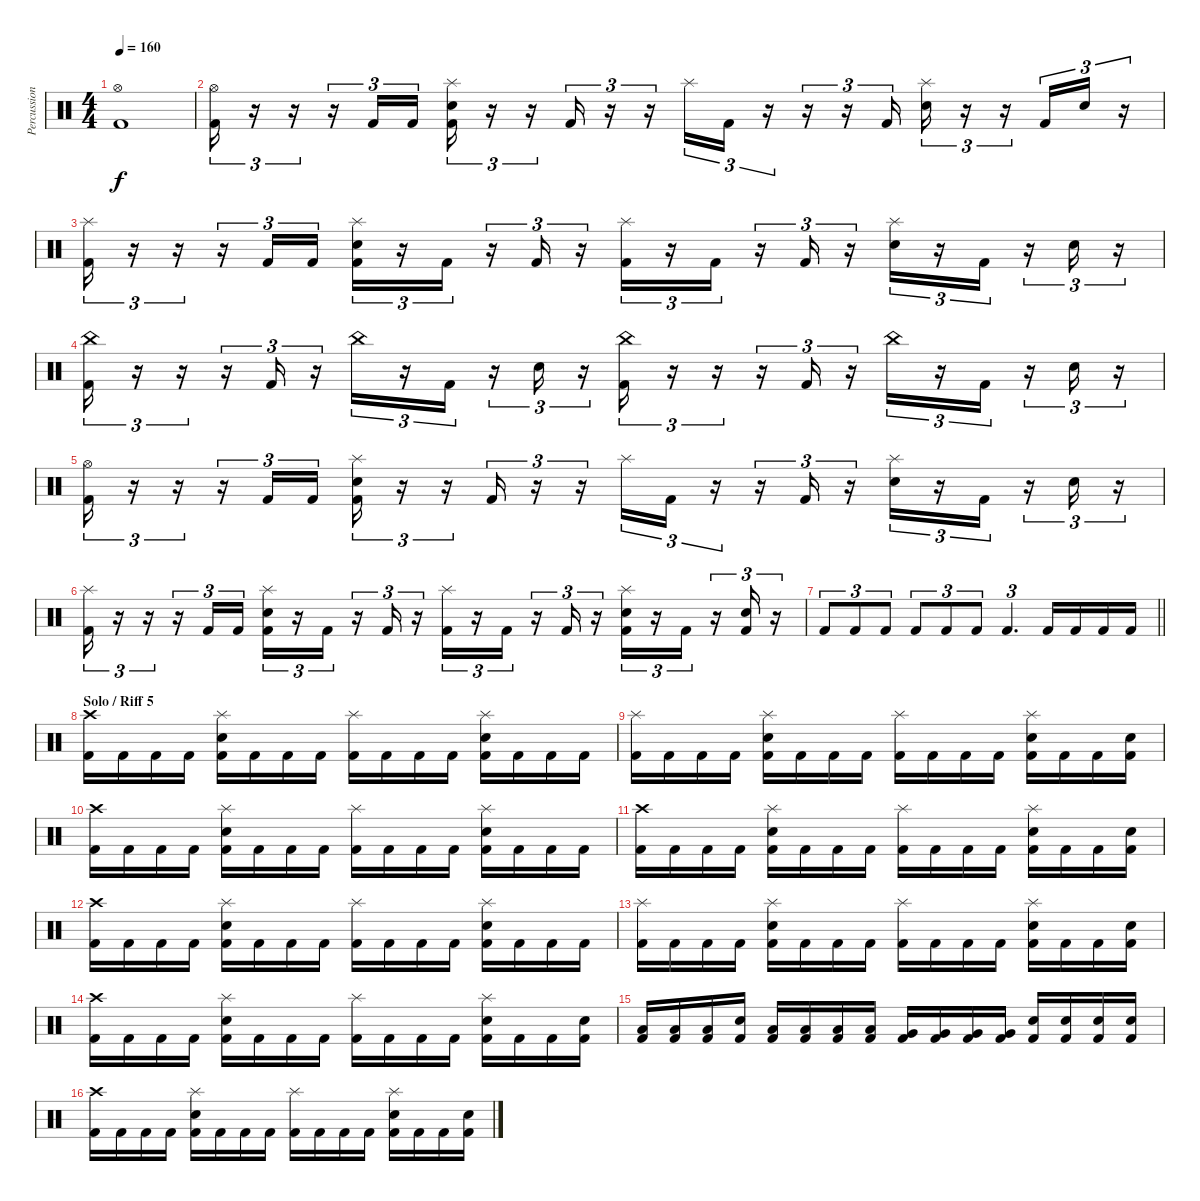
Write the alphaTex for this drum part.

\track ("Percussions" "Percussion") {instrument percussion bank 1}
\staff {score}
\articulation defaults
\ts (4 4)
\tempo 160
\clef neutral
\ks c
("Kick (hit) 2" "Hi-Hat (open)").1{dy f} |
("Kick (hit) 2" "Hi-Hat (open)").16{tu (3 2)} r.16{tu (3 2)} r.16{tu (3 2)} r.16{tu (3 2)} "Kick (hit) 2".16{tu (3 2)} "Kick (hit) 2".16{tu (3 2)} ("Kick (hit) 2" "Electric Snare (hit)" "Splash (hit)").16{tu (3 2)} r.16{tu (3 2)} r.16{tu (3 2)} "Kick (hit) 2".16{tu (3 2)} r.16{tu (3 2)} r.16{tu (3 2)} "Splash (hit)".16{tu (3 2)} "Kick (hit) 2".16{tu (3 2)} r.16{tu (3 2)} r.16{tu (3 2)} r.16{tu (3 2)} "Kick (hit) 2".16{tu (3 2)} ("Electric Snare (hit)" "Splash (hit)").16{tu (3 2)} r.16{tu (3 2)} r.16{tu (3 2)} "Kick (hit) 2".16{tu (3 2)} "Electric Snare (hit)".16{tu (3 2)} r.16{tu (3 2)} |
("Kick (hit) 2" "Splash (hit)").16{tu (3 2)} r.16{tu (3 2)} r.16{tu (3 2)} r.16{tu (3 2)} "Kick (hit) 2".16{tu (3 2)} "Kick (hit) 2".16{tu (3 2)} ("Kick (hit) 2" "Electric Snare (hit)" "Splash (hit)").16{tu (3 2)} r.16{tu (3 2)} "Kick (hit) 2".16{tu (3 2)} r.16{tu (3 2)} "Kick (hit) 2".16{tu (3 2)} r.16{tu (3 2)} ("Kick (hit) 2" "Splash (hit)").16{tu (3 2)} r.16{tu (3 2)} "Kick (hit) 2".16{tu (3 2)} r.16{tu (3 2)} "Kick (hit) 2".16{tu (3 2)} r.16{tu (3 2)} ("Electric Snare (hit)" "Splash (hit)").16{tu (3 2)} r.16{tu (3 2)} "Kick (hit) 2".16{tu (3 2)} r.16{tu (3 2)} "Electric Snare (hit)".16{tu (3 2)} r.16{tu (3 2)} |
("Kick (hit) 2" "China (hit)").16{tu (3 2)} r.16{tu (3 2)} r.16{tu (3 2)} r.16{tu (3 2)} "Kick (hit) 2".16{tu (3 2)} r.16{tu (3 2)} "China (hit)".16{tu (3 2)} r.16{tu (3 2)} "Kick (hit) 2".16{tu (3 2)} r.16{tu (3 2)} "Electric Snare (hit)".16{tu (3 2)} r.16{tu (3 2)} ("Kick (hit) 2" "China (hit)").16{tu (3 2)} r.16{tu (3 2)} r.16{tu (3 2)} r.16{tu (3 2)} "Kick (hit) 2".16{tu (3 2)} r.16{tu (3 2)} "China (hit)".16{tu (3 2)} r.16{tu (3 2)} "Kick (hit) 2".16{tu (3 2)} r.16{tu (3 2)} "Electric Snare (hit)".16{tu (3 2)} r.16{tu (3 2)} |
("Kick (hit) 2" "Hi-Hat (open)").16{tu (3 2)} r.16{tu (3 2)} r.16{tu (3 2)} r.16{tu (3 2)} "Kick (hit) 2".16{tu (3 2)} "Kick (hit) 2".16{tu (3 2)} ("Kick (hit) 2" "Electric Snare (hit)" "Splash (hit)").16{tu (3 2)} r.16{tu (3 2)} r.16{tu (3 2)} "Kick (hit) 2".16{tu (3 2)} r.16{tu (3 2)} r.16{tu (3 2)} "Splash (hit)".16{tu (3 2)} "Kick (hit) 2".16{tu (3 2)} r.16{tu (3 2)} r.16{tu (3 2)} "Kick (hit) 2".16{tu (3 2)} r.16{tu (3 2)} ("Electric Snare (hit)" "Splash (hit)").16{tu (3 2)} r.16{tu (3 2)} "Kick (hit) 2".16{tu (3 2)} r.16{tu (3 2)} "Electric Snare (hit)".16{tu (3 2)} r.16{tu (3 2)} |
("Kick (hit) 2" "Splash (hit)").16{tu (3 2)} r.16{tu (3 2)} r.16{tu (3 2)} r.16{tu (3 2)} "Kick (hit) 2".16{tu (3 2)} "Kick (hit) 2".16{tu (3 2)} ("Kick (hit) 2" "Electric Snare (hit)" "Splash (hit)").16{tu (3 2)} r.16{tu (3 2)} "Kick (hit) 2".16{tu (3 2)} r.16{tu (3 2)} "Kick (hit) 2".16{tu (3 2)} r.16{tu (3 2)} ("Kick (hit) 2" "Splash (hit)").16{tu (3 2)} r.16{tu (3 2)} "Kick (hit) 2".16{tu (3 2)} r.16{tu (3 2)} "Kick (hit) 2".16{tu (3 2)} r.16{tu (3 2)} ("Kick (hit) 2" "Electric Snare (hit)" "Splash (hit)").16{tu (3 2)} r.16{tu (3 2)} "Kick (hit) 2".16{tu (3 2)} r.16{tu (3 2)} ("Kick (hit) 2" "Electric Snare (hit)").16{tu (3 2)} r.16{tu (3 2)} |
\barLineRight lightlight "Kick (hit) 2".8{tu (3 2)} "Kick (hit) 2".8{tu (3 2)} "Kick (hit) 2".8{tu (3 2)} "Kick (hit) 2".8{tu (3 2)} "Kick (hit) 2".8{tu (3 2)} "Kick (hit) 2".8{tu (3 2)} "Kick (hit) 2".4{d tu (3 2)} "Kick (hit) 2".16 "Kick (hit) 2".16 "Kick (hit) 2".16 "Kick (hit) 2".16
|
\section ("" "Solo / Riff 5")
("Kick (hit) 2" "Crash high (hit)").16 "Kick (hit) 2".16 "Kick (hit) 2".16 "Kick (hit) 2".16 ("Kick (hit) 2" "Electric Snare (hit)" "Splash (hit)").16 "Kick (hit) 2".16 "Kick (hit) 2".16 "Kick (hit) 2".16 ("Kick (hit) 2" "Splash (hit)").16 "Kick (hit) 2".16 "Kick (hit) 2".16 "Kick (hit) 2".16 ("Kick (hit) 2" "Electric Snare (hit)" "Splash (hit)").16 "Kick (hit) 2".16 "Kick (hit) 2".16 "Kick (hit) 2".16 |
("Kick (hit) 2" "Splash (hit)").16 "Kick (hit) 2".16 "Kick (hit) 2".16 "Kick (hit) 2".16 ("Kick (hit) 2" "Electric Snare (hit)" "Splash (hit)").16 "Kick (hit) 2".16 "Kick (hit) 2".16 "Kick (hit) 2".16 ("Kick (hit) 2" "Splash (hit)").16 "Kick (hit) 2".16 "Kick (hit) 2".16 "Kick (hit) 2".16 ("Kick (hit) 2" "Electric Snare (hit)" "Splash (hit)").16 "Kick (hit) 2".16 "Kick (hit) 2".16 ("Kick (hit) 2" "Electric Snare (hit)").16 |
("Kick (hit) 2" "Crash high (hit)").16 "Kick (hit) 2".16 "Kick (hit) 2".16 "Kick (hit) 2".16 ("Kick (hit) 2" "Electric Snare (hit)" "Splash (hit)").16 "Kick (hit) 2".16 "Kick (hit) 2".16 "Kick (hit) 2".16 ("Kick (hit) 2" "Splash (hit)").16 "Kick (hit) 2".16 "Kick (hit) 2".16 "Kick (hit) 2".16 ("Kick (hit) 2" "Electric Snare (hit)" "Splash (hit)").16 "Kick (hit) 2".16 "Kick (hit) 2".16 "Kick (hit) 2".16 |
("Kick (hit) 2" "Crash high (hit)").16 "Kick (hit) 2".16 "Kick (hit) 2".16 "Kick (hit) 2".16 ("Kick (hit) 2" "Electric Snare (hit)" "Splash (hit)").16 "Kick (hit) 2".16 "Kick (hit) 2".16 "Kick (hit) 2".16 ("Kick (hit) 2" "Splash (hit)").16 "Kick (hit) 2".16 "Kick (hit) 2".16 "Kick (hit) 2".16 ("Kick (hit) 2" "Electric Snare (hit)" "Splash (hit)").16 "Kick (hit) 2".16 "Kick (hit) 2".16 ("Kick (hit) 2" "Electric Snare (hit)").16 |
("Kick (hit) 2" "Crash high (hit)").16 "Kick (hit) 2".16 "Kick (hit) 2".16 "Kick (hit) 2".16 ("Kick (hit) 2" "Electric Snare (hit)" "Splash (hit)").16 "Kick (hit) 2".16 "Kick (hit) 2".16 "Kick (hit) 2".16 ("Kick (hit) 2" "Splash (hit)").16 "Kick (hit) 2".16 "Kick (hit) 2".16 "Kick (hit) 2".16 ("Kick (hit) 2" "Electric Snare (hit)" "Splash (hit)").16 "Kick (hit) 2".16 "Kick (hit) 2".16 "Kick (hit) 2".16 |
("Kick (hit) 2" "Splash (hit)").16 "Kick (hit) 2".16 "Kick (hit) 2".16 "Kick (hit) 2".16 ("Kick (hit) 2" "Electric Snare (hit)" "Splash (hit)").16 "Kick (hit) 2".16 "Kick (hit) 2".16 "Kick (hit) 2".16 ("Kick (hit) 2" "Splash (hit)").16 "Kick (hit) 2".16 "Kick (hit) 2".16 "Kick (hit) 2".16 ("Kick (hit) 2" "Electric Snare (hit)" "Splash (hit)").16 "Kick (hit) 2".16 "Kick (hit) 2".16 ("Kick (hit) 2" "Electric Snare (hit)").16 |
("Kick (hit) 2" "Crash high (hit)").16 "Kick (hit) 2".16 "Kick (hit) 2".16 "Kick (hit) 2".16 ("Kick (hit) 2" "Electric Snare (hit)" "Splash (hit)").16 "Kick (hit) 2".16 "Kick (hit) 2".16 "Kick (hit) 2".16 ("Kick (hit) 2" "Splash (hit)").16 "Kick (hit) 2".16 "Kick (hit) 2".16 "Kick (hit) 2".16 ("Kick (hit) 2" "Electric Snare (hit)" "Splash (hit)").16 "Kick (hit) 2".16 "Kick (hit) 2".16 ("Kick (hit) 2" "Electric Snare (hit)").16 |
("Kick (hit) 2" "Low Floor Tom (hit)").16 ("Kick (hit) 2" "Low Floor Tom (hit)").16 ("Kick (hit) 2" "Low Floor Tom (hit)").16 ("Kick (hit) 2" "Snare (hit)").16 ("Kick (hit) 2" "Low Floor Tom (hit)").16 ("Kick (hit) 2" "Low Floor Tom (hit)").16 ("Kick (hit) 2" "Low Floor Tom (hit)").16 ("Kick (hit) 2" "Low Floor Tom (hit)").16 ("Kick (hit) 2" "Very Low Tom (hit)").16 ("Kick (hit) 2" "Very Low Tom (hit)").16 ("Kick (hit) 2" "Very Low Tom (hit)").16 ("Kick (hit) 2" "Very Low Tom (hit)").16 ("Kick (hit) 2" "Electric Snare (hit)").16 ("Kick (hit) 2" "Electric Snare (hit)").16 ("Kick (hit) 2" "Electric Snare (hit)").16 ("Kick (hit) 2" "Electric Snare (hit)").16 |
("Kick (hit) 2" "Crash high (hit)").16 "Kick (hit) 2".16 "Kick (hit) 2".16 "Kick (hit) 2".16 ("Kick (hit) 2" "Electric Snare (hit)" "Splash (hit)").16 "Kick (hit) 2".16 "Kick (hit) 2".16 "Kick (hit) 2".16 ("Kick (hit) 2" "Splash (hit)").16 "Kick (hit) 2".16 "Kick (hit) 2".16 "Kick (hit) 2".16 ("Kick (hit) 2" "Electric Snare (hit)" "Splash (hit)").16 "Kick (hit) 2".16 "Kick (hit) 2".16 ("Kick (hit) 2" "Electric Snare (hit)").16
